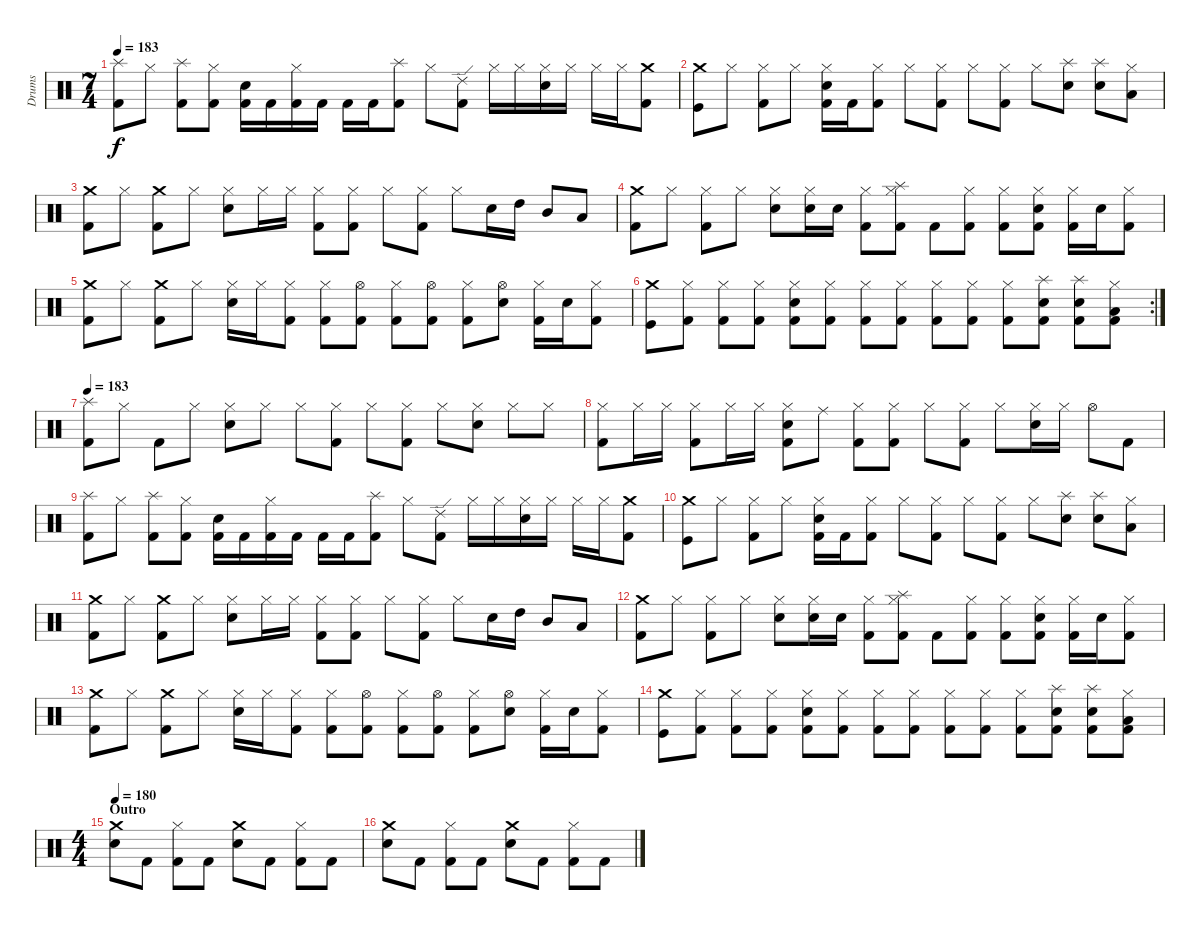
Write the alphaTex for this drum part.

\track ("Drums" "Drums") {instrument percussion}
\staff {score}
\articulation defaults
\ts (7 4)
\tempo 183
\clef neutral
\ks c
("Splash (hit)" "Kick (hit) 2").8{dy f} "Hi-Hat (closed)".8 ("Splash (hit)" "Kick (hit) 2").8 ("Hi-Hat (closed)" "Kick (hit) 2").8 ("Electric Snare (hit)" "Kick (hit) 2").16 "Kick (hit) 2".16 ("Hi-Hat (closed)" "Kick (hit) 2").16 "Kick (hit) 2".16 "Kick (hit) 2".16 "Kick (hit) 2".16 ("Splash (hit)" "Kick (hit) 2").8 "Hi-Hat (closed)".8 ("Ride (edge) 2" "Kick (hit) 2").8 "Hi-Hat (closed)".16 "Hi-Hat (closed)".16 ("Hi-Hat (closed)" "Electric Snare (hit)").16 "Hi-Hat (closed)".16 "Hi-Hat (closed)".16 "Hi-Hat (closed)".16 ("Crash medium (hit)" "Kick (hit) 2").8 |
("Crash medium (hit)" "Kick (hit)").8 "Hi-Hat (closed)".8 ("Hi-Hat (closed)" "Kick (hit) 2").8 "Hi-Hat (closed)".8 ("Hi-Hat (closed)" "Electric Snare (hit)" "Kick (hit) 2").16 "Kick (hit) 2".16 ("Hi-Hat (closed)" "Kick (hit) 2").8 "Hi-Hat (closed)".8 ("Hi-Hat (closed)" "Kick (hit) 2").8 "Hi-Hat (closed)".8 ("Hi-Hat (closed)" "Kick (hit) 2").8 "Hi-Hat (closed)".8 ("Splash (hit)" "Electric Snare (hit)").8 ("Splash (hit)" "Electric Snare (hit)").8 ("Hi-Hat (closed)" "Low Floor Tom (hit)").8 |
("Crash medium (hit)" "Kick (hit) 2").8 "Hi-Hat (closed)".8 ("Crash medium (hit)" "Kick (hit) 2").8 "Hi-Hat (closed)".8 ("Hi-Hat (closed)" "Electric Snare (hit)").8 "Hi-Hat (closed)".16 "Hi-Hat (closed)".16 ("Hi-Hat (closed)" "Kick (hit) 2").8 ("Hi-Hat (closed)" "Kick (hit) 2").8 "Hi-Hat (closed)".8 ("Hi-Hat (closed)" "Kick (hit) 2").8 "Hi-Hat (closed)".8 "Electric Snare (hit)".16 "High Tom (hit)".16 "Mid Tom (hit)".8 "Low Tom (hit)".8 |
("Crash medium (hit)" "Kick (hit) 2").8 "Hi-Hat (closed)".8 ("Hi-Hat (closed)" "Kick (hit) 2").8 "Hi-Hat (closed)".8 ("Hi-Hat (closed)" "Electric Snare (hit)").8 ("Hi-Hat (closed)" "Snare (hit) 2").16 "Electric Snare (hit)".16 ("Hi-Hat (closed)" "Kick (hit) 2").8 ("Hi-Hat (closed)" "Kick (hit) 2" "Splash (hit)").8 "Kick (hit) 2".8 ("Hi-Hat (closed)" "Kick (hit) 2").8 ("Hi-Hat (closed)" "Kick (hit) 2").8 ("Hi-Hat (closed)" "Electric Snare (hit)" "Kick (hit) 2").8 ("Hi-Hat (closed)" "Kick (hit) 2").16 "Electric Snare (hit)".16 ("Hi-Hat (closed)" "Kick (hit) 2").8 |
("Crash medium (hit)" "Kick (hit) 2").8 "Hi-Hat (closed)".8 ("Crash medium (hit)" "Kick (hit) 2").8 "Hi-Hat (closed)".8 ("Hi-Hat (closed)" "Electric Snare (hit)").16 "Hi-Hat (closed)".16 ("Hi-Hat (closed)" "Kick (hit) 2").8 ("Hi-Hat (closed)" "Kick (hit) 2").8 ("Hi-Hat (open)" "Kick (hit) 2").8 ("Hi-Hat (closed)" "Kick (hit) 2").8 ("Hi-Hat (open)" "Kick (hit) 2").8 ("Hi-Hat (closed)" "Kick (hit) 2").8 ("Hi-Hat (open)" "Electric Snare (hit)").8 ("Hi-Hat (closed)" "Kick (hit) 2").16 "Electric Snare (hit)".16 ("Hi-Hat (closed)" "Kick (hit) 2").8 |
\rc 2
("Crash medium (hit)" "Kick (hit)").8 ("Hi-Hat (closed)" "Kick (hit) 2").8 ("Hi-Hat (closed)" "Kick (hit) 2").8 ("Hi-Hat (closed)" "Kick (hit) 2").8 ("Hi-Hat (closed)" "Electric Snare (hit)" "Kick (hit) 2").8 ("Hi-Hat (closed)" "Kick (hit) 2").8 ("Hi-Hat (closed)" "Kick (hit) 2").8 ("Hi-Hat (closed)" "Kick (hit) 2").8 ("Hi-Hat (closed)" "Kick (hit) 2").8 ("Hi-Hat (closed)" "Kick (hit) 2").8 ("Hi-Hat (closed)" "Kick (hit) 2").8 ("Splash (hit)" "Electric Snare (hit)" "Kick (hit) 2").8 ("Splash (hit)" "Electric Snare (hit)" "Kick (hit) 2").8 ("Hi-Hat (closed)" "Low Floor Tom (hit)" "Kick (hit) 2").8 |
\tempo 183
("Splash (hit)" "Kick (hit) 2").8 "Hi-Hat (closed)".8 "Kick (hit) 2".8 "Hi-Hat (closed)".8 ("Hi-Hat (closed)" "Electric Snare (hit)").8 "Hi-Hat (closed)".8 "Hi-Hat (closed)".8 ("Hi-Hat (closed)" "Kick (hit) 2").8 "Hi-Hat (closed)".8 ("Hi-Hat (closed)" "Kick (hit) 2").8 "Hi-Hat (closed)".8 ("Hi-Hat (closed)" "Electric Snare (hit)").8 "Hi-Hat (closed)".8 "Hi-Hat (closed)".8 |
("Hi-Hat (closed)" "Kick (hit) 2").8 "Hi-Hat (closed)".16 "Hi-Hat (closed)".16 ("Hi-Hat (closed)" "Kick (hit) 2").8 "Hi-Hat (closed)".16 "Hi-Hat (closed)".16 ("Hi-Hat (closed)" "Electric Snare (hit)" "Kick (hit) 2").8 "Ride (middle)".8 ("Hi-Hat (closed)" "Kick (hit) 2").8 ("Hi-Hat (closed)" "Kick (hit) 2").8 "Hi-Hat (closed)".8 ("Hi-Hat (closed)" "Kick (hit) 2").8 "Hi-Hat (closed)".8 ("Hi-Hat (closed)" "Electric Snare (hit)").16 "Hi-Hat (closed)".16 "Hi-Hat (open)".8 "Kick (hit) 2".8 |
("Splash (hit)" "Kick (hit) 2").8 "Hi-Hat (closed)".8 ("Splash (hit)" "Kick (hit) 2").8 ("Hi-Hat (closed)" "Kick (hit) 2").8 ("Electric Snare (hit)" "Kick (hit) 2").16 "Kick (hit) 2".16 ("Hi-Hat (closed)" "Kick (hit) 2").16 "Kick (hit) 2".16 "Kick (hit) 2".16 "Kick (hit) 2".16 ("Splash (hit)" "Kick (hit) 2").8 "Hi-Hat (closed)".8 ("Ride (edge) 2" "Kick (hit) 2").8 "Hi-Hat (closed)".16 "Hi-Hat (closed)".16 ("Hi-Hat (closed)" "Electric Snare (hit)").16 "Hi-Hat (closed)".16 "Hi-Hat (closed)".16 "Hi-Hat (closed)".16 ("Crash medium (hit)" "Kick (hit) 2").8 |
("Crash medium (hit)" "Kick (hit)").8 "Hi-Hat (closed)".8 ("Hi-Hat (closed)" "Kick (hit) 2").8 "Hi-Hat (closed)".8 ("Hi-Hat (closed)" "Electric Snare (hit)" "Kick (hit) 2").16 "Kick (hit) 2".16 ("Hi-Hat (closed)" "Kick (hit) 2").8 "Hi-Hat (closed)".8 ("Hi-Hat (closed)" "Kick (hit) 2").8 "Hi-Hat (closed)".8 ("Hi-Hat (closed)" "Kick (hit) 2").8 "Hi-Hat (closed)".8 ("Splash (hit)" "Electric Snare (hit)").8 ("Splash (hit)" "Electric Snare (hit)").8 ("Hi-Hat (closed)" "Low Floor Tom (hit)").8 |
("Crash medium (hit)" "Kick (hit) 2").8 "Hi-Hat (closed)".8 ("Crash medium (hit)" "Kick (hit) 2").8 "Hi-Hat (closed)".8 ("Hi-Hat (closed)" "Electric Snare (hit)").8 "Hi-Hat (closed)".16 "Hi-Hat (closed)".16 ("Hi-Hat (closed)" "Kick (hit) 2").8 ("Hi-Hat (closed)" "Kick (hit) 2").8 "Hi-Hat (closed)".8 ("Hi-Hat (closed)" "Kick (hit) 2").8 "Hi-Hat (closed)".8 "Electric Snare (hit)".16 "High Tom (hit)".16 "Mid Tom (hit)".8 "Low Tom (hit)".8 |
("Crash medium (hit)" "Kick (hit) 2").8 "Hi-Hat (closed)".8 ("Hi-Hat (closed)" "Kick (hit) 2").8 "Hi-Hat (closed)".8 ("Hi-Hat (closed)" "Electric Snare (hit)").8 ("Hi-Hat (closed)" "Snare (hit) 2").16 "Electric Snare (hit)".16 ("Hi-Hat (closed)" "Kick (hit) 2").8 ("Hi-Hat (closed)" "Kick (hit) 2" "Splash (hit)").8 "Kick (hit) 2".8 ("Hi-Hat (closed)" "Kick (hit) 2").8 ("Hi-Hat (closed)" "Kick (hit) 2").8 ("Hi-Hat (closed)" "Electric Snare (hit)" "Kick (hit) 2").8 ("Hi-Hat (closed)" "Kick (hit) 2").16 "Electric Snare (hit)".16 ("Hi-Hat (closed)" "Kick (hit) 2").8 |
("Crash medium (hit)" "Kick (hit) 2").8 "Hi-Hat (closed)".8 ("Crash medium (hit)" "Kick (hit) 2").8 "Hi-Hat (closed)".8 ("Hi-Hat (closed)" "Electric Snare (hit)").16 "Hi-Hat (closed)".16 ("Hi-Hat (closed)" "Kick (hit) 2").8 ("Hi-Hat (closed)" "Kick (hit) 2").8 ("Hi-Hat (open)" "Kick (hit) 2").8 ("Hi-Hat (closed)" "Kick (hit) 2").8 ("Hi-Hat (open)" "Kick (hit) 2").8 ("Hi-Hat (closed)" "Kick (hit) 2").8 ("Hi-Hat (open)" "Electric Snare (hit)").8 ("Hi-Hat (closed)" "Kick (hit) 2").16 "Electric Snare (hit)".16 ("Hi-Hat (closed)" "Kick (hit) 2").8 |
("Crash medium (hit)" "Kick (hit)").8 ("Hi-Hat (closed)" "Kick (hit) 2").8 ("Hi-Hat (closed)" "Kick (hit) 2").8 ("Hi-Hat (closed)" "Kick (hit) 2").8 ("Hi-Hat (closed)" "Electric Snare (hit)" "Kick (hit) 2").8 ("Hi-Hat (closed)" "Kick (hit) 2").8 ("Hi-Hat (closed)" "Kick (hit) 2").8 ("Hi-Hat (closed)" "Kick (hit) 2").8 ("Hi-Hat (closed)" "Kick (hit) 2").8 ("Hi-Hat (closed)" "Kick (hit) 2").8 ("Hi-Hat (closed)" "Kick (hit) 2").8 ("Splash (hit)" "Electric Snare (hit)" "Kick (hit) 2").8 ("Splash (hit)" "Electric Snare (hit)" "Kick (hit) 2").8 ("Hi-Hat (closed)" "Low Floor Tom (hit)" "Kick (hit) 2").8 |
\ts (4 4)
\section ("" "Outro")
\tempo 180
("Electric Snare (hit)" "Crash medium (hit)").8 "Kick (hit) 2".8 ("Hi-Hat (closed)" "Kick (hit) 2").8 "Kick (hit) 2".8 ("Electric Snare (hit)" "Crash medium (hit)").8 "Kick (hit) 2".8 ("Hi-Hat (closed)" "Kick (hit) 2").8 "Kick (hit) 2".8 |
("Electric Snare (hit)" "Crash medium (hit)").8 "Kick (hit) 2".8 ("Hi-Hat (closed)" "Kick (hit) 2").8 "Kick (hit) 2".8 ("Electric Snare (hit)" "Crash medium (hit)").8 "Kick (hit) 2".8 ("Hi-Hat (closed)" "Kick (hit) 2").8 "Kick (hit) 2".8
